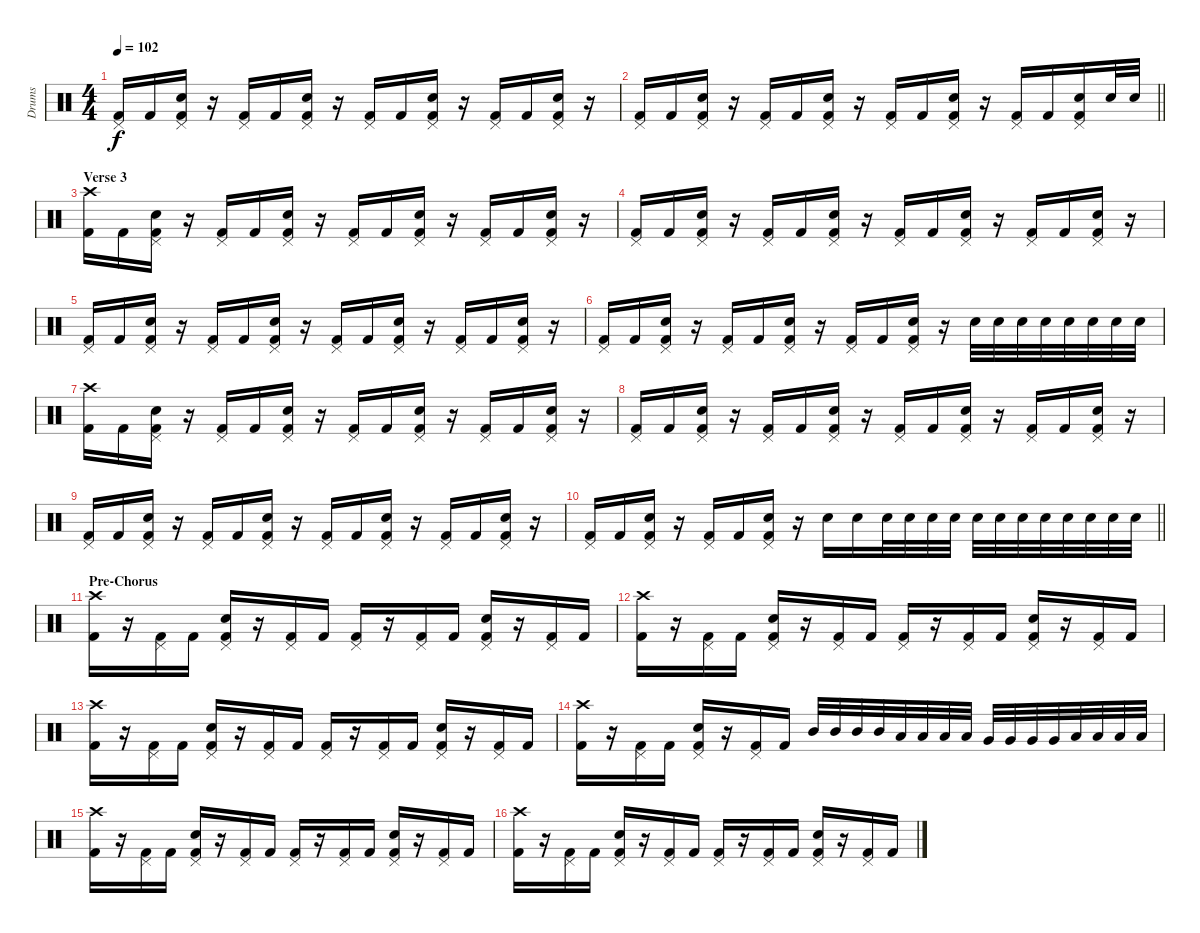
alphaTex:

\track ("Drums" "Drums") {instrument percussion}
\staff {score}
\articulation defaults
\ts (4 4)
\tempo 102
\clef neutral
\ks c
("Pedal Hi-Hat (hit)" "Kick (hit) 2").16{dy f} "Kick (hit) 2".16 ("Pedal Hi-Hat (hit)" "Snare (hit) 2" "Kick (hit) 2").16 r.16 ("Pedal Hi-Hat (hit)" "Kick (hit) 2").16 "Kick (hit) 2".16 ("Pedal Hi-Hat (hit)" "Snare (hit) 2" "Kick (hit) 2").16 r.16 ("Pedal Hi-Hat (hit)" "Kick (hit) 2").16 "Kick (hit) 2".16 ("Pedal Hi-Hat (hit)" "Snare (hit) 2" "Kick (hit) 2").16 r.16 ("Pedal Hi-Hat (hit)" "Kick (hit) 2").16 "Kick (hit) 2".16 ("Pedal Hi-Hat (hit)" "Snare (hit) 2" "Kick (hit) 2").16 r.16 |
\barLineRight lightlight
("Pedal Hi-Hat (hit)" "Kick (hit) 2").16 "Kick (hit) 2".16 ("Pedal Hi-Hat (hit)" "Snare (hit) 2" "Kick (hit) 2").16 r.16 ("Pedal Hi-Hat (hit)" "Kick (hit) 2").16 "Kick (hit) 2".16 ("Pedal Hi-Hat (hit)" "Snare (hit) 2" "Kick (hit) 2").16 r.16 ("Pedal Hi-Hat (hit)" "Kick (hit) 2").16 "Kick (hit) 2".16 ("Pedal Hi-Hat (hit)" "Snare (hit) 2" "Kick (hit) 2").16 r.16 ("Pedal Hi-Hat (hit)" "Kick (hit) 2").16 "Kick (hit) 2".16 ("Pedal Hi-Hat (hit)" "Snare (hit) 2" "Kick (hit) 2").16 "Snare (hit) 2".32 "Snare (hit) 2".32 |
\section ("" "Verse 3")
("Crash high (hit)" "Kick (hit) 2").16 "Kick (hit) 2".16 ("Pedal Hi-Hat (hit)" "Snare (hit) 2" "Kick (hit) 2").16 r.16 ("Pedal Hi-Hat (hit)" "Kick (hit) 2").16 "Kick (hit) 2".16 ("Pedal Hi-Hat (hit)" "Snare (hit) 2" "Kick (hit) 2").16 r.16 ("Pedal Hi-Hat (hit)" "Kick (hit) 2").16 "Kick (hit) 2".16 ("Pedal Hi-Hat (hit)" "Snare (hit) 2" "Kick (hit) 2").16 r.16 ("Pedal Hi-Hat (hit)" "Kick (hit) 2").16 "Kick (hit) 2".16 ("Pedal Hi-Hat (hit)" "Snare (hit) 2" "Kick (hit) 2").16 r.16 |
("Pedal Hi-Hat (hit)" "Kick (hit) 2").16 "Kick (hit) 2".16 ("Pedal Hi-Hat (hit)" "Snare (hit) 2" "Kick (hit) 2").16 r.16 ("Pedal Hi-Hat (hit)" "Kick (hit) 2").16 "Kick (hit) 2".16 ("Pedal Hi-Hat (hit)" "Snare (hit) 2" "Kick (hit) 2").16 r.16 ("Pedal Hi-Hat (hit)" "Kick (hit) 2").16 "Kick (hit) 2".16 ("Pedal Hi-Hat (hit)" "Snare (hit) 2" "Kick (hit) 2").16 r.16 ("Pedal Hi-Hat (hit)" "Kick (hit) 2").16 "Kick (hit) 2".16 ("Pedal Hi-Hat (hit)" "Snare (hit) 2" "Kick (hit) 2").16 r.16 |
("Pedal Hi-Hat (hit)" "Kick (hit) 2").16 "Kick (hit) 2".16 ("Pedal Hi-Hat (hit)" "Snare (hit) 2" "Kick (hit) 2").16 r.16 ("Pedal Hi-Hat (hit)" "Kick (hit) 2").16 "Kick (hit) 2".16 ("Pedal Hi-Hat (hit)" "Snare (hit) 2" "Kick (hit) 2").16 r.16 ("Pedal Hi-Hat (hit)" "Kick (hit) 2").16 "Kick (hit) 2".16 ("Pedal Hi-Hat (hit)" "Snare (hit) 2" "Kick (hit) 2").16 r.16 ("Pedal Hi-Hat (hit)" "Kick (hit) 2").16 "Kick (hit) 2".16 ("Pedal Hi-Hat (hit)" "Snare (hit) 2" "Kick (hit) 2").16 r.16 |
("Pedal Hi-Hat (hit)" "Kick (hit) 2").16 "Kick (hit) 2".16 ("Pedal Hi-Hat (hit)" "Snare (hit) 2" "Kick (hit) 2").16 r.16 ("Pedal Hi-Hat (hit)" "Kick (hit) 2").16 "Kick (hit) 2".16 ("Pedal Hi-Hat (hit)" "Snare (hit) 2" "Kick (hit) 2").16 r.16 ("Pedal Hi-Hat (hit)" "Kick (hit) 2").16 "Kick (hit) 2".16 ("Pedal Hi-Hat (hit)" "Snare (hit) 2" "Kick (hit) 2").16 r.16 "Snare (hit) 2".32 "Snare (hit) 2".32 "Snare (hit) 2".32 "Snare (hit) 2".32 "Snare (hit) 2".32 "Snare (hit) 2".32 "Snare (hit) 2".32 "Snare (hit) 2".32 |
("Crash high (hit)" "Kick (hit) 2").16 "Kick (hit) 2".16 ("Pedal Hi-Hat (hit)" "Snare (hit) 2" "Kick (hit) 2").16 r.16 ("Pedal Hi-Hat (hit)" "Kick (hit) 2").16 "Kick (hit) 2".16 ("Pedal Hi-Hat (hit)" "Snare (hit) 2" "Kick (hit) 2").16 r.16 ("Pedal Hi-Hat (hit)" "Kick (hit) 2").16 "Kick (hit) 2".16 ("Pedal Hi-Hat (hit)" "Snare (hit) 2" "Kick (hit) 2").16 r.16 ("Pedal Hi-Hat (hit)" "Kick (hit) 2").16 "Kick (hit) 2".16 ("Pedal Hi-Hat (hit)" "Snare (hit) 2" "Kick (hit) 2").16 r.16 |
("Pedal Hi-Hat (hit)" "Kick (hit) 2").16 "Kick (hit) 2".16 ("Pedal Hi-Hat (hit)" "Snare (hit) 2" "Kick (hit) 2").16 r.16 ("Pedal Hi-Hat (hit)" "Kick (hit) 2").16 "Kick (hit) 2".16 ("Pedal Hi-Hat (hit)" "Snare (hit) 2" "Kick (hit) 2").16 r.16 ("Pedal Hi-Hat (hit)" "Kick (hit) 2").16 "Kick (hit) 2".16 ("Pedal Hi-Hat (hit)" "Snare (hit) 2" "Kick (hit) 2").16 r.16 ("Pedal Hi-Hat (hit)" "Kick (hit) 2").16 "Kick (hit) 2".16 ("Pedal Hi-Hat (hit)" "Snare (hit) 2" "Kick (hit) 2").16 r.16 |
("Pedal Hi-Hat (hit)" "Kick (hit) 2").16 "Kick (hit) 2".16 ("Pedal Hi-Hat (hit)" "Snare (hit) 2" "Kick (hit) 2").16 r.16 ("Pedal Hi-Hat (hit)" "Kick (hit) 2").16 "Kick (hit) 2".16 ("Pedal Hi-Hat (hit)" "Snare (hit) 2" "Kick (hit) 2").16 r.16 ("Pedal Hi-Hat (hit)" "Kick (hit) 2").16 "Kick (hit) 2".16 ("Pedal Hi-Hat (hit)" "Snare (hit) 2" "Kick (hit) 2").16 r.16 ("Pedal Hi-Hat (hit)" "Kick (hit) 2").16 "Kick (hit) 2".16 ("Pedal Hi-Hat (hit)" "Snare (hit) 2" "Kick (hit) 2").16 r.16 |
\barLineRight lightlight
("Pedal Hi-Hat (hit)" "Kick (hit) 2").16 "Kick (hit) 2".16 ("Pedal Hi-Hat (hit)" "Snare (hit) 2" "Kick (hit) 2").16 r.16 ("Pedal Hi-Hat (hit)" "Kick (hit) 2").16 "Kick (hit) 2".16 ("Pedal Hi-Hat (hit)" "Snare (hit) 2" "Kick (hit) 2").16 r.16 "Snare (hit) 2".16 "Snare (hit) 2".16 "Snare (hit) 2".32 "Snare (hit) 2".32 "Snare (hit) 2".32 "Snare (hit) 2".32 "Snare (hit) 2".32 "Snare (hit) 2".32 "Snare (hit) 2".32 "Snare (hit) 2".32 "Snare (hit) 2".32 "Snare (hit) 2".32 "Snare (hit) 2".32 "Snare (hit) 2".32 |
\section ("" "Pre-Chorus")
("Crash high (hit)" "Kick (hit) 2").16 r.16 ("Pedal Hi-Hat (hit)" "Kick (hit) 2").16 "Kick (hit) 2".16 ("Pedal Hi-Hat (hit)" "Snare (hit) 2" "Kick (hit) 2").16 r.16 ("Pedal Hi-Hat (hit)" "Kick (hit) 2").16 "Kick (hit) 2".16 ("Pedal Hi-Hat (hit)" "Kick (hit) 2").16 r.16 ("Pedal Hi-Hat (hit)" "Kick (hit) 2").16 "Kick (hit) 2".16 ("Pedal Hi-Hat (hit)" "Snare (hit) 2" "Kick (hit) 2").16 r.16 ("Pedal Hi-Hat (hit)" "Kick (hit) 2").16 "Kick (hit) 2".16 |
("Crash high (hit)" "Kick (hit) 2").16 r.16 ("Pedal Hi-Hat (hit)" "Kick (hit) 2").16 "Kick (hit) 2".16 ("Pedal Hi-Hat (hit)" "Snare (hit) 2" "Kick (hit) 2").16 r.16 ("Pedal Hi-Hat (hit)" "Kick (hit) 2").16 "Kick (hit) 2".16 ("Pedal Hi-Hat (hit)" "Kick (hit) 2").16 r.16 ("Pedal Hi-Hat (hit)" "Kick (hit) 2").16 "Kick (hit) 2".16 ("Pedal Hi-Hat (hit)" "Snare (hit) 2" "Kick (hit) 2").16 r.16 ("Pedal Hi-Hat (hit)" "Kick (hit) 2").16 "Kick (hit) 2".16 |
("Crash high (hit)" "Kick (hit) 2").16 r.16 ("Pedal Hi-Hat (hit)" "Kick (hit) 2").16 "Kick (hit) 2".16 ("Pedal Hi-Hat (hit)" "Snare (hit) 2" "Kick (hit) 2").16 r.16 ("Pedal Hi-Hat (hit)" "Kick (hit) 2").16 "Kick (hit) 2".16 ("Pedal Hi-Hat (hit)" "Kick (hit) 2").16 r.16 ("Pedal Hi-Hat (hit)" "Kick (hit) 2").16 "Kick (hit) 2".16 ("Pedal Hi-Hat (hit)" "Snare (hit) 2" "Kick (hit) 2").16 r.16 ("Pedal Hi-Hat (hit)" "Kick (hit) 2").16 "Kick (hit) 2".16 |
("Crash high (hit)" "Kick (hit) 2").16 r.16 ("Pedal Hi-Hat (hit)" "Kick (hit) 2").16 "Kick (hit) 2".16 ("Pedal Hi-Hat (hit)" "Snare (hit) 2" "Kick (hit) 2").16 r.16 ("Pedal Hi-Hat (hit)" "Kick (hit) 2").16 "Kick (hit) 2".16 "Mid Tom (hit)".32 "Mid Tom (hit)".32 "Mid Tom (hit)".32 "Mid Tom (hit)".32 "Low Tom (hit)".32 "Low Tom (hit)".32 "Low Tom (hit)".32 "Low Tom (hit)".32 "Very Low Tom (hit)".32 "Very Low Tom (hit)".32 "Very Low Tom (hit)".32 "Very Low Tom (hit)".32 "Low Floor Tom (hit)".32 "Low Floor Tom (hit)".32 "Low Floor Tom (hit)".32 "Low Floor Tom (hit)".32 |
("Crash high (hit)" "Kick (hit) 2").16 r.16 ("Pedal Hi-Hat (hit)" "Kick (hit) 2").16 "Kick (hit) 2".16 ("Pedal Hi-Hat (hit)" "Snare (hit) 2" "Kick (hit) 2").16 r.16 ("Pedal Hi-Hat (hit)" "Kick (hit) 2").16 "Kick (hit) 2".16 ("Pedal Hi-Hat (hit)" "Kick (hit) 2").16 r.16 ("Pedal Hi-Hat (hit)" "Kick (hit) 2").16 "Kick (hit) 2".16 ("Pedal Hi-Hat (hit)" "Snare (hit) 2" "Kick (hit) 2").16 r.16 ("Pedal Hi-Hat (hit)" "Kick (hit) 2").16 "Kick (hit) 2".16 |
("Crash high (hit)" "Kick (hit) 2").16 r.16 ("Pedal Hi-Hat (hit)" "Kick (hit) 2").16 "Kick (hit) 2".16 ("Pedal Hi-Hat (hit)" "Snare (hit) 2" "Kick (hit) 2").16 r.16 ("Pedal Hi-Hat (hit)" "Kick (hit) 2").16 "Kick (hit) 2".16 ("Pedal Hi-Hat (hit)" "Kick (hit) 2").16 r.16 ("Pedal Hi-Hat (hit)" "Kick (hit) 2").16 "Kick (hit) 2".16 ("Pedal Hi-Hat (hit)" "Snare (hit) 2" "Kick (hit) 2").16 r.16 ("Pedal Hi-Hat (hit)" "Kick (hit) 2").16 "Kick (hit) 2".16
